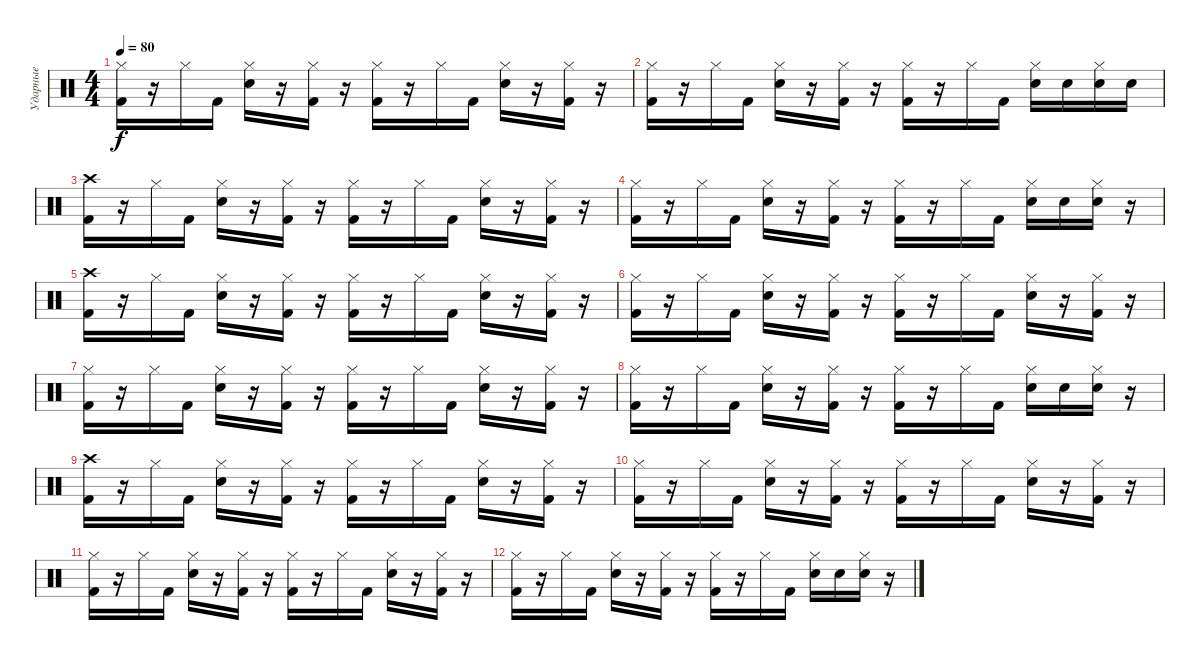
\track ("Ударные" "Ударные") {instrument percussion}
\staff {score}
\articulation defaults
\ts (4 4)
\tempo 80
\clef neutral
\ks c
("Kick (hit) 2" "Hi-Hat (closed)").16{dy f} r.16 "Hi-Hat (closed)".16 "Kick (hit) 2".16 ("Electric Snare (hit)" "Hi-Hat (closed)").16 r.16 ("Kick (hit) 2" "Hi-Hat (closed)").16 r.16 ("Kick (hit) 2" "Hi-Hat (closed)").16 r.16 "Hi-Hat (closed)".16 "Kick (hit) 2".16 ("Electric Snare (hit)" "Hi-Hat (closed)").16 r.16 ("Kick (hit) 2" "Hi-Hat (closed)").16 r.16 |
("Kick (hit) 2" "Hi-Hat (closed)").16 r.16 "Hi-Hat (closed)".16 "Kick (hit) 2".16 ("Electric Snare (hit)" "Hi-Hat (closed)").16 r.16 ("Kick (hit) 2" "Hi-Hat (closed)").16 r.16 ("Kick (hit) 2" "Hi-Hat (closed)").16 r.16 "Hi-Hat (closed)".16 "Kick (hit) 2".16 ("Electric Snare (hit)" "Hi-Hat (closed)").16 "Electric Snare (hit)".16 ("Electric Snare (hit)" "Hi-Hat (closed)").16 "Electric Snare (hit)".16 |
("Kick (hit) 2" "Crash high (hit)").16 r.16 "Hi-Hat (closed)".16 "Kick (hit) 2".16 ("Electric Snare (hit)" "Hi-Hat (closed)").16 r.16 ("Kick (hit) 2" "Hi-Hat (closed)").16 r.16 ("Kick (hit) 2" "Hi-Hat (closed)").16 r.16 "Hi-Hat (closed)".16 "Kick (hit) 2".16 ("Electric Snare (hit)" "Hi-Hat (closed)").16 r.16 ("Kick (hit) 2" "Hi-Hat (closed)").16 r.16 |
("Kick (hit) 2" "Hi-Hat (closed)").16 r.16 "Hi-Hat (closed)".16 "Kick (hit) 2".16 ("Electric Snare (hit)" "Hi-Hat (closed)").16 r.16 ("Kick (hit) 2" "Hi-Hat (closed)").16 r.16 ("Kick (hit) 2" "Hi-Hat (closed)").16 r.16 "Hi-Hat (closed)".16 "Kick (hit) 2".16 ("Electric Snare (hit)" "Hi-Hat (closed)").16 "Electric Snare (hit)".16 ("Electric Snare (hit)" "Hi-Hat (closed)").16 r.16 |
("Kick (hit) 2" "Crash high (hit)").16 r.16 "Hi-Hat (closed)".16 "Kick (hit) 2".16 ("Electric Snare (hit)" "Hi-Hat (closed)").16 r.16 ("Kick (hit) 2" "Hi-Hat (closed)").16 r.16 ("Kick (hit) 2" "Hi-Hat (closed)").16 r.16 "Hi-Hat (closed)".16 "Kick (hit) 2".16 ("Electric Snare (hit)" "Hi-Hat (closed)").16 r.16 ("Kick (hit) 2" "Hi-Hat (closed)").16 r.16 |
("Kick (hit) 2" "Hi-Hat (closed)").16 r.16 "Hi-Hat (closed)".16 "Kick (hit) 2".16 ("Electric Snare (hit)" "Hi-Hat (closed)").16 r.16 ("Kick (hit) 2" "Hi-Hat (closed)").16 r.16 ("Kick (hit) 2" "Hi-Hat (closed)").16 r.16 "Hi-Hat (closed)".16 "Kick (hit) 2".16 ("Electric Snare (hit)" "Hi-Hat (closed)").16 r.16 ("Kick (hit) 2" "Hi-Hat (closed)").16 r.16 |
("Kick (hit) 2" "Hi-Hat (closed)").16 r.16 "Hi-Hat (closed)".16 "Kick (hit) 2".16 ("Electric Snare (hit)" "Hi-Hat (closed)").16 r.16 ("Kick (hit) 2" "Hi-Hat (closed)").16 r.16 ("Kick (hit) 2" "Hi-Hat (closed)").16 r.16 "Hi-Hat (closed)".16 "Kick (hit) 2".16 ("Electric Snare (hit)" "Hi-Hat (closed)").16 r.16 ("Kick (hit) 2" "Hi-Hat (closed)").16 r.16 |
("Kick (hit) 2" "Hi-Hat (closed)").16 r.16 "Hi-Hat (closed)".16 "Kick (hit) 2".16 ("Electric Snare (hit)" "Hi-Hat (closed)").16 r.16 ("Kick (hit) 2" "Hi-Hat (closed)").16 r.16 ("Kick (hit) 2" "Hi-Hat (closed)").16 r.16 "Hi-Hat (closed)".16 "Kick (hit) 2".16 ("Electric Snare (hit)" "Hi-Hat (closed)").16 "Electric Snare (hit)".16 ("Electric Snare (hit)" "Hi-Hat (closed)").16 r.16 |
("Kick (hit) 2" "Crash high (hit)").16 r.16 "Hi-Hat (closed)".16 "Kick (hit) 2".16 ("Electric Snare (hit)" "Hi-Hat (closed)").16 r.16 ("Kick (hit) 2" "Hi-Hat (closed)").16 r.16 ("Kick (hit) 2" "Hi-Hat (closed)").16 r.16 "Hi-Hat (closed)".16 "Kick (hit) 2".16 ("Electric Snare (hit)" "Hi-Hat (closed)").16 r.16 ("Kick (hit) 2" "Hi-Hat (closed)").16 r.16 |
("Kick (hit) 2" "Hi-Hat (closed)").16 r.16 "Hi-Hat (closed)".16 "Kick (hit) 2".16 ("Electric Snare (hit)" "Hi-Hat (closed)").16 r.16 ("Kick (hit) 2" "Hi-Hat (closed)").16 r.16 ("Kick (hit) 2" "Hi-Hat (closed)").16 r.16 "Hi-Hat (closed)".16 "Kick (hit) 2".16 ("Electric Snare (hit)" "Hi-Hat (closed)").16 r.16 ("Kick (hit) 2" "Hi-Hat (closed)").16 r.16 |
("Kick (hit) 2" "Hi-Hat (closed)").16 r.16 "Hi-Hat (closed)".16 "Kick (hit) 2".16 ("Electric Snare (hit)" "Hi-Hat (closed)").16 r.16 ("Kick (hit) 2" "Hi-Hat (closed)").16 r.16 ("Kick (hit) 2" "Hi-Hat (closed)").16 r.16 "Hi-Hat (closed)".16 "Kick (hit) 2".16 ("Electric Snare (hit)" "Hi-Hat (closed)").16 r.16 ("Kick (hit) 2" "Hi-Hat (closed)").16 r.16 |
("Kick (hit) 2" "Hi-Hat (closed)").16 r.16 "Hi-Hat (closed)".16 "Kick (hit) 2".16 ("Electric Snare (hit)" "Hi-Hat (closed)").16 r.16 ("Kick (hit) 2" "Hi-Hat (closed)").16 r.16 ("Kick (hit) 2" "Hi-Hat (closed)").16 r.16 "Hi-Hat (closed)".16 "Kick (hit) 2".16 ("Electric Snare (hit)" "Hi-Hat (closed)").16 "Electric Snare (hit)".16 ("Electric Snare (hit)" "Hi-Hat (closed)").16 r.16
